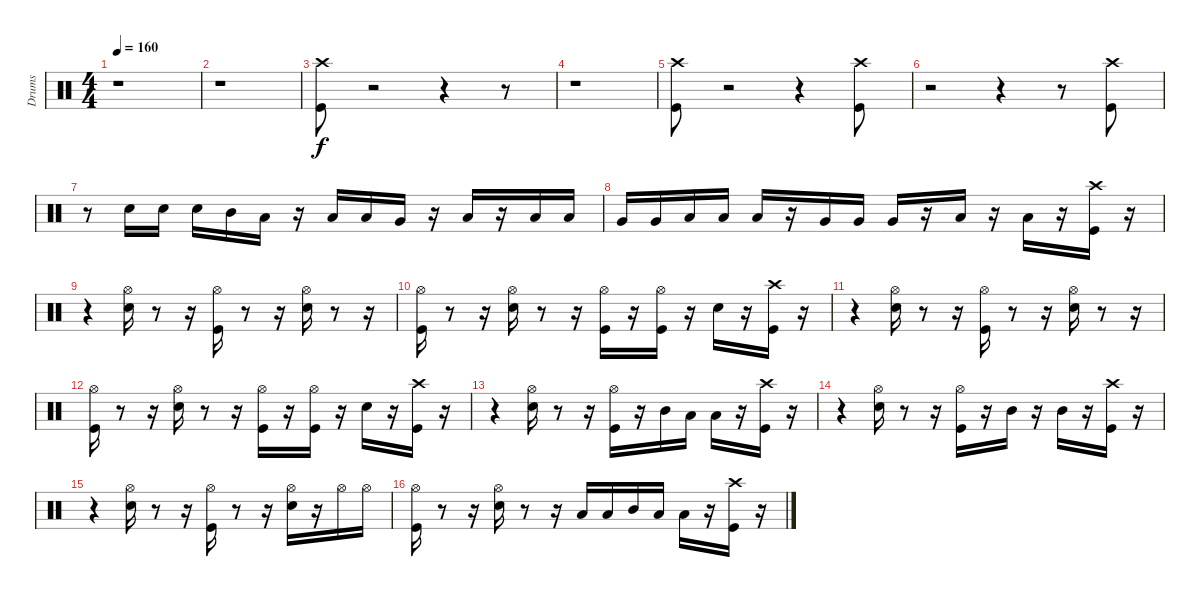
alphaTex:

\track ("Drums" "Drums") {instrument percussion}
\staff {score}
\articulation defaults
\ts (4 4)
\tempo 160
\clef neutral
\ks c
r.1{dy f} |
r.1 |
("Kick (hit)" "Crash high (hit)").8 r.2 r.4 r.8 |
r.1 |
("Crash high (hit)" "Kick (hit)").8 r.2 r.4 ("Kick (hit)" "Crash high (hit)").8 |
r.2 r.4 r.8 ("Crash high (hit)" "Kick (hit)").8 |
r.8 "Snare (hit) 2".16 "Snare (hit) 2".16 "Snare (hit) 2".16 "Mid Tom (hit)".16 "Low Tom (hit)".16 r.16 "Low Tom (hit)".16 "Low Tom (hit)".16 "Very Low Tom (hit)".16 r.16 "Low Tom (hit)".16 r.16 "Low Tom (hit)".16 "Low Tom (hit)".16 |
"Very Low Tom (hit)".16 "Very Low Tom (hit)".16 "Low Floor Tom (hit)".16 "Low Floor Tom (hit)".16 "Low Floor Tom (hit)".16 r.16 "Very Low Tom (hit)".16 "Very Low Tom (hit)".16 "Very Low Tom (hit)".16 r.16 "Low Floor Tom (hit)".16 r.16 "Low Floor Tom (hit)".16 r.16 ("Kick (hit)" "Crash high (hit)").16 r.16 |
r.4 ("Hi-Hat (open)" "Snare (hit) 2").16 r.8 r.16 ("Kick (hit)" "Hi-Hat (open)").16 r.8 r.16 ("Snare (hit) 2" "Hi-Hat (open)").16 r.8 r.16 |
("Kick (hit)" "Hi-Hat (open)").16 r.8 r.16 ("Hi-Hat (open)" "Snare (hit) 2").16 r.8 r.16 ("Kick (hit)" "Hi-Hat (open)").16 r.16 ("Kick (hit)" "Hi-Hat (open)").16 r.16 "Snare (hit) 2".16 r.16 ("Kick (hit)" "Crash high (hit)").16 r.16 |
r.4 ("Snare (hit) 2" "Hi-Hat (open)").16 r.8 r.16 ("Kick (hit)" "Hi-Hat (open)").16 r.8 r.16 ("Snare (hit) 2" "Hi-Hat (open)").16 r.8 r.16 |
("Kick (hit)" "Hi-Hat (open)").16 r.8 r.16 ("Hi-Hat (open)" "Snare (hit) 2").16 r.8 r.16 ("Kick (hit)" "Hi-Hat (open)").16 r.16 ("Kick (hit)" "Hi-Hat (open)").16 r.16 "Snare (hit) 2".16 r.16 ("Kick (hit)" "Crash high (hit)").16 r.16 |
r.4 ("Snare (hit) 2" "Hi-Hat (open)").16 r.8 r.16 ("Kick (hit)" "Hi-Hat (open)").16 r.16 "Mid Tom (hit)".16 "Low Tom (hit)".16 "Low Tom (hit)".16 r.16 ("Kick (hit)" "Crash high (hit)").16 r.16 |
r.4 ("Snare (hit) 2" "Hi-Hat (open)").16 r.8 r.16 ("Kick (hit)" "Hi-Hat (open)").16 r.16 "Mid Tom (hit)".16 r.16 "Mid Tom (hit)".16 r.16 ("Kick (hit)" "Crash high (hit)").16 r.16 |
r.4 ("Hi-Hat (open)" "Snare (hit) 2").16 r.8 r.16 ("Kick (hit)" "Hi-Hat (open)").16 r.8 r.16 ("Snare (hit) 2" "Hi-Hat (open)").16 r.16 "Hi-Hat (open)".16 "Hi-Hat (open)".16 |
("Kick (hit)" "Hi-Hat (open)").16 r.8 r.16 ("Hi-Hat (open)" "Snare (hit) 2").16 r.8 r.16 "Low Tom (hit)".16 "Low Tom (hit)".16 "Mid Tom (hit)".16 "Low Tom (hit)".16 "Low Tom (hit)".16 r.16 ("Kick (hit)" "Crash high (hit)").16 r.16
